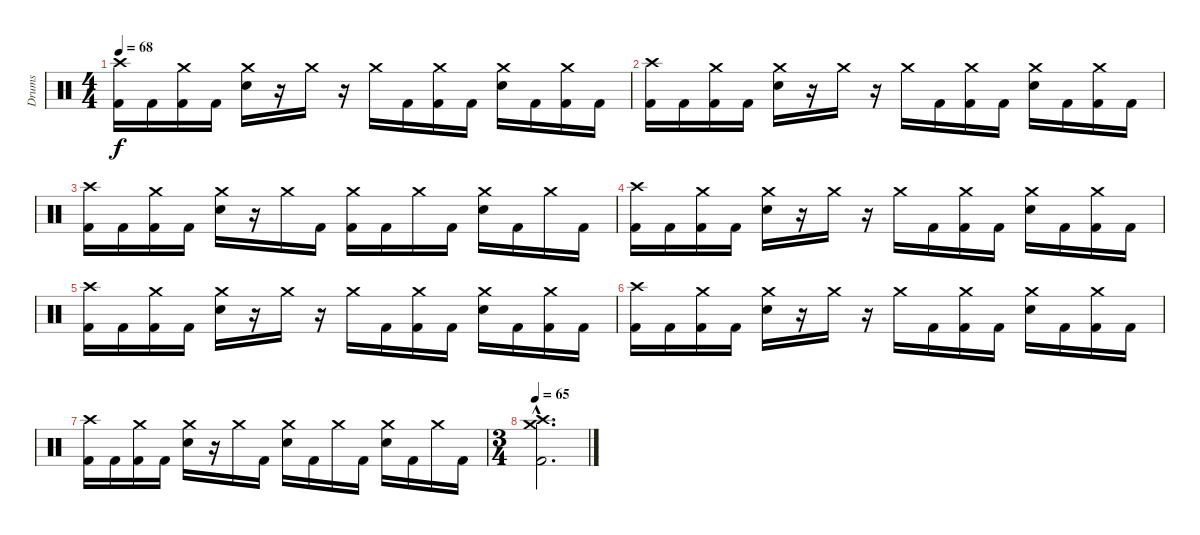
\track ("Drums" "Drums") {instrument percussion}
\staff {score}
\articulation defaults
\ts (4 4)
\tempo 68
\clef neutral
\ks c
("Crash high (hit)" "Kick (hit) 2").16{dy f} "Kick (hit) 2".16 ("Crash medium (hit)" "Kick (hit) 2").16 "Kick (hit) 2".16 ("Crash medium (hit)" "Electric Snare (hit)").16 r.16 "Crash medium (hit)".16 r.16 "Crash medium (hit)".16 "Kick (hit) 2".16 ("Crash medium (hit)" "Kick (hit) 2").16 "Kick (hit) 2".16 ("Crash medium (hit)" "Electric Snare (hit)").16 "Kick (hit) 2".16 ("Crash medium (hit)" "Kick (hit) 2").16 "Kick (hit) 2".16 |
("Crash high (hit)" "Kick (hit) 2").16 "Kick (hit) 2".16 ("Crash medium (hit)" "Kick (hit) 2").16 "Kick (hit) 2".16 ("Crash medium (hit)" "Electric Snare (hit)").16 r.16 "Crash medium (hit)".16 r.16 "Crash medium (hit)".16 "Kick (hit) 2".16 ("Crash medium (hit)" "Kick (hit) 2").16 "Kick (hit) 2".16 ("Crash medium (hit)" "Electric Snare (hit)").16 "Kick (hit) 2".16 ("Crash medium (hit)" "Kick (hit) 2").16 "Kick (hit) 2".16 |
("Crash high (hit)" "Kick (hit) 2").16 "Kick (hit) 2".16 ("Crash medium (hit)" "Kick (hit) 2").16 "Kick (hit) 2".16 ("Crash medium (hit)" "Electric Snare (hit)").16 r.16 "Crash medium (hit)".16 "Kick (hit) 2".16 ("Crash medium (hit)" "Kick (hit) 2").16 "Kick (hit) 2".16 "Crash medium (hit)".16 "Kick (hit) 2".16 ("Crash medium (hit)" "Electric Snare (hit)").16 "Kick (hit) 2".16 "Crash medium (hit)".16 "Kick (hit) 2".16 |
("Crash high (hit)" "Kick (hit) 2").16 "Kick (hit) 2".16 ("Crash medium (hit)" "Kick (hit) 2").16 "Kick (hit) 2".16 ("Crash medium (hit)" "Electric Snare (hit)").16 r.16 "Crash medium (hit)".16 r.16 "Crash medium (hit)".16 "Kick (hit) 2".16 ("Crash medium (hit)" "Kick (hit) 2").16 "Kick (hit) 2".16 ("Crash medium (hit)" "Electric Snare (hit)").16 "Kick (hit) 2".16 ("Crash medium (hit)" "Kick (hit) 2").16 "Kick (hit) 2".16 |
("Crash high (hit)" "Kick (hit) 2").16 "Kick (hit) 2".16 ("Crash medium (hit)" "Kick (hit) 2").16 "Kick (hit) 2".16 ("Crash medium (hit)" "Electric Snare (hit)").16 r.16 "Crash medium (hit)".16 r.16 "Crash medium (hit)".16 "Kick (hit) 2".16 ("Crash medium (hit)" "Kick (hit) 2").16 "Kick (hit) 2".16 ("Crash medium (hit)" "Electric Snare (hit)").16 "Kick (hit) 2".16 ("Crash medium (hit)" "Kick (hit) 2").16 "Kick (hit) 2".16 |
("Crash high (hit)" "Kick (hit) 2").16 "Kick (hit) 2".16 ("Crash medium (hit)" "Kick (hit) 2").16 "Kick (hit) 2".16 ("Crash medium (hit)" "Electric Snare (hit)").16 r.16 "Crash medium (hit)".16 r.16 "Crash medium (hit)".16 "Kick (hit) 2".16 ("Crash medium (hit)" "Kick (hit) 2").16 "Kick (hit) 2".16 ("Crash medium (hit)" "Electric Snare (hit)").16 "Kick (hit) 2".16 ("Crash medium (hit)" "Kick (hit) 2").16 "Kick (hit) 2".16 |
("Crash high (hit)" "Kick (hit) 2").16 "Kick (hit) 2".16 ("Crash medium (hit)" "Kick (hit) 2").16 "Kick (hit) 2".16 ("Crash medium (hit)" "Electric Snare (hit)").16 r.16 "Crash medium (hit)".16 "Kick (hit) 2".16 ("Crash medium (hit)" "Electric Snare (hit)").16 "Kick (hit) 2".16 "Crash medium (hit)".16 "Kick (hit) 2".16 ("Crash medium (hit)" "Electric Snare (hit)").16 "Kick (hit) 2".16 "Crash medium (hit)".16 "Kick (hit) 2".16 |
\ts (3 4)
\tempo 65
("Crash medium (hit)"{hac} "Crash high (hit)"{hac} "Kick (hit) 2"{hac}).2{d}
